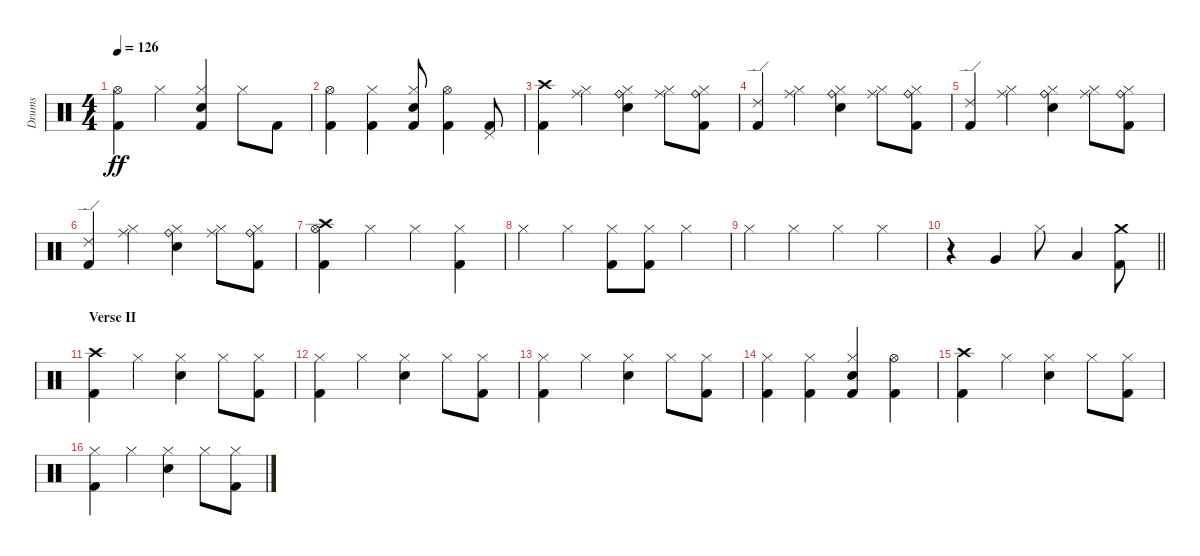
\track ("Drums" "Drums") {instrument percussion}
\staff {score}
\articulation defaults
\ts (4 4)
\tempo 126
\clef neutral
\ks c
("Hi-Hat (open)" "Kick (hit) 2").4{dy ff} "Hi-Hat (closed)".4 ("Hi-Hat (closed)" "Snare (hit) 2" "Kick (hit) 2").4 "Hi-Hat (closed)".8 "Kick (hit) 2".8 |
("Hi-Hat (open)" "Kick (hit) 2").4 ("Hi-Hat (closed)" "Kick (hit) 2").4 ("Hi-Hat (closed)" "Snare (hit) 2" "Kick (hit) 2").8 ("Hi-Hat (open)" "Kick (hit) 2").4 ("Pedal Hi-Hat (hit)" "Kick (hit) 2").8 |
("Crash high (hit)" "Kick (hit) 2").4 ("Ride (middle)" "Hi-Hat (closed)").4 ("Ride (bell)" "Hi-Hat (closed)" "Snare (hit) 2").4 ("Ride (middle)" "Hi-Hat (closed)").8 ("Ride (bell)" "Hi-Hat (closed)" "Kick (hit) 2").8 |
("Ride (edge) 2" "Kick (hit) 2").4 ("Ride (middle)" "Hi-Hat (closed)").4 ("Ride (bell)" "Hi-Hat (closed)" "Snare (hit) 2").4 ("Ride (middle)" "Hi-Hat (closed)").8 ("Ride (bell)" "Hi-Hat (closed)" "Kick (hit) 2").8 |
("Ride (edge) 2" "Kick (hit) 2").4 ("Ride (middle)" "Hi-Hat (closed)").4 ("Ride (bell)" "Hi-Hat (closed)" "Snare (hit) 2").4 ("Ride (middle)" "Hi-Hat (closed)").8 ("Ride (bell)" "Hi-Hat (closed)" "Kick (hit) 2").8 |
("Ride (edge) 2" "Kick (hit) 2").4 ("Ride (middle)" "Hi-Hat (closed)").4 ("Ride (bell)" "Hi-Hat (closed)" "Snare (hit) 2").4 ("Ride (middle)" "Hi-Hat (closed)").8 ("Ride (bell)" "Hi-Hat (closed)" "Kick (hit) 2").8 |
("Crash high (hit)" "Hi-Hat (open)" "Kick (hit) 2").4 "Hi-Hat (closed)".4 "Hi-Hat (closed)".4 ("Hi-Hat (closed)" "Kick (hit) 2").4 |
"Hi-Hat (closed)".4 "Hi-Hat (closed)".4 ("Hi-Hat (closed)" "Kick (hit) 2").8 ("Hi-Hat (closed)" "Kick (hit) 2").8 "Hi-Hat (closed)".4 |
"Hi-Hat (closed)".4 "Hi-Hat (closed)".4 "Hi-Hat (closed)".4 "Hi-Hat (closed)".4 |
\barLineRight lightlight
r.4 "Very Low Tom (hit)".4 "Hi-Hat (closed)".8 "Low Floor Tom (hit)".4 ("Crash medium (hit)" "Kick (hit) 2").8 |
\section ("" "Verse II")
("Crash high (hit)" "Kick (hit) 2").4 "Hi-Hat (closed)".4 ("Hi-Hat (closed)" "Snare (hit) 2").4 "Hi-Hat (closed)".8 ("Hi-Hat (closed)" "Kick (hit) 2").8 |
("Hi-Hat (closed)" "Kick (hit) 2").4 "Hi-Hat (closed)".4 ("Hi-Hat (closed)" "Snare (hit) 2").4 "Hi-Hat (closed)".8 ("Hi-Hat (closed)" "Kick (hit) 2").8 |
("Hi-Hat (closed)" "Kick (hit) 2").4 "Hi-Hat (closed)".4 ("Hi-Hat (closed)" "Snare (hit) 2").4 "Hi-Hat (closed)".8 ("Hi-Hat (closed)" "Kick (hit) 2").8 |
("Hi-Hat (closed)" "Kick (hit) 2").4 ("Hi-Hat (closed)" "Kick (hit) 2").4 ("Hi-Hat (closed)" "Snare (hit) 2" "Kick (hit) 2").4 ("Hi-Hat (open)" "Kick (hit) 2").4 |
("Crash high (hit)" "Kick (hit) 2").4 "Hi-Hat (closed)".4 ("Hi-Hat (closed)" "Snare (hit) 2").4 "Hi-Hat (closed)".8 ("Hi-Hat (closed)" "Kick (hit) 2").8 |
("Hi-Hat (closed)" "Kick (hit) 2").4 "Hi-Hat (closed)".4 ("Hi-Hat (closed)" "Snare (hit) 2").4 "Hi-Hat (closed)".8 ("Hi-Hat (closed)" "Kick (hit) 2").8
